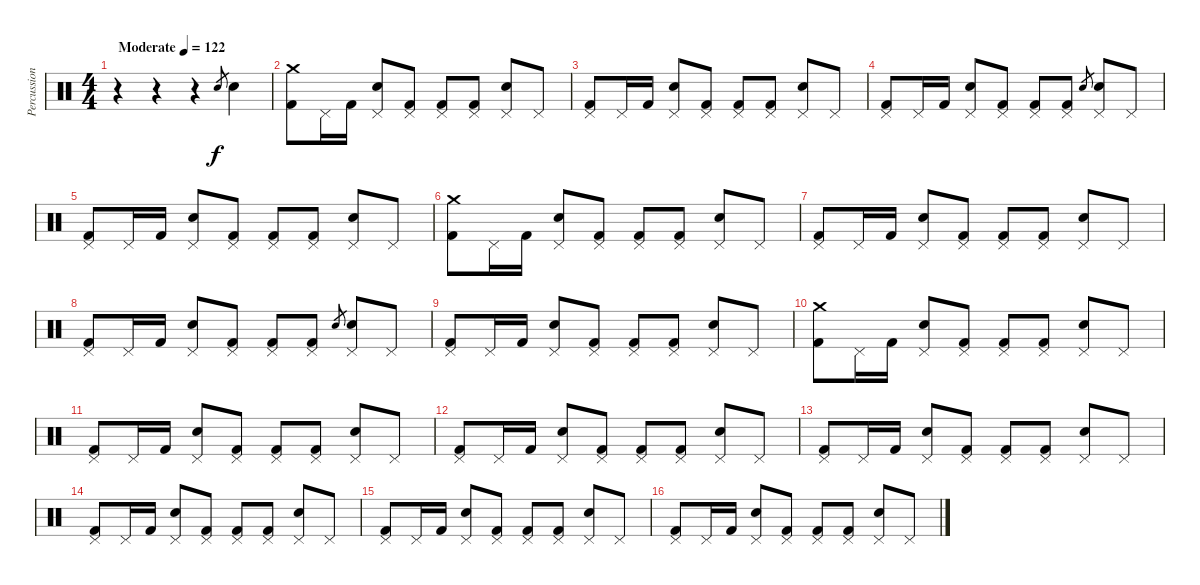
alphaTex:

\track ("Percussion" "Percussion") {instrument percussion}
\staff {score}
\articulation defaults
\ts (4 4)
\tempo (122 "Moderate")
\clef neutral
\ks c
r.4{dy f} r.4 r.4 "Electric Snare (hit)".8{gr} "Electric Snare (hit)".4 |
("Crash medium (hit)" "Kick (hit) 2").8 "Pedal Hi-Hat (hit)".16 "Kick (hit) 2".16 ("Pedal Hi-Hat (hit)" "Electric Snare (hit)").8 ("Pedal Hi-Hat (hit)" "Kick (hit) 2").8 ("Pedal Hi-Hat (hit)" "Kick (hit) 2").8 ("Pedal Hi-Hat (hit)" "Kick (hit) 2").8 ("Pedal Hi-Hat (hit)" "Electric Snare (hit)").8 "Pedal Hi-Hat (hit)".8 |
("Pedal Hi-Hat (hit)" "Kick (hit) 2").8 "Pedal Hi-Hat (hit)".16 "Kick (hit) 2".16 ("Pedal Hi-Hat (hit)" "Electric Snare (hit)").8 ("Pedal Hi-Hat (hit)" "Kick (hit) 2").8 ("Pedal Hi-Hat (hit)" "Kick (hit) 2").8 ("Pedal Hi-Hat (hit)" "Kick (hit) 2").8 ("Pedal Hi-Hat (hit)" "Electric Snare (hit)").8 "Pedal Hi-Hat (hit)".8 |
("Pedal Hi-Hat (hit)" "Kick (hit) 2").8 "Pedal Hi-Hat (hit)".16 "Kick (hit) 2".16 ("Pedal Hi-Hat (hit)" "Electric Snare (hit)").8 ("Pedal Hi-Hat (hit)" "Kick (hit) 2").8 ("Pedal Hi-Hat (hit)" "Kick (hit) 2").8 ("Pedal Hi-Hat (hit)" "Kick (hit) 2").8 "Electric Snare (hit)".8{gr} ("Pedal Hi-Hat (hit)" "Electric Snare (hit)").8 "Pedal Hi-Hat (hit)".8 |
("Pedal Hi-Hat (hit)" "Kick (hit) 2").8 "Pedal Hi-Hat (hit)".16 "Kick (hit) 2".16 ("Pedal Hi-Hat (hit)" "Electric Snare (hit)").8 ("Pedal Hi-Hat (hit)" "Kick (hit) 2").8 ("Pedal Hi-Hat (hit)" "Kick (hit) 2").8 ("Pedal Hi-Hat (hit)" "Kick (hit) 2").8 ("Pedal Hi-Hat (hit)" "Electric Snare (hit)").8 "Pedal Hi-Hat (hit)".8 |
("Crash medium (hit)" "Kick (hit) 2").8 "Pedal Hi-Hat (hit)".16 "Kick (hit) 2".16 ("Pedal Hi-Hat (hit)" "Electric Snare (hit)").8 ("Pedal Hi-Hat (hit)" "Kick (hit) 2").8 ("Pedal Hi-Hat (hit)" "Kick (hit) 2").8 ("Pedal Hi-Hat (hit)" "Kick (hit) 2").8 ("Pedal Hi-Hat (hit)" "Electric Snare (hit)").8 "Pedal Hi-Hat (hit)".8 |
("Pedal Hi-Hat (hit)" "Kick (hit) 2").8 "Pedal Hi-Hat (hit)".16 "Kick (hit) 2".16 ("Pedal Hi-Hat (hit)" "Electric Snare (hit)").8 ("Pedal Hi-Hat (hit)" "Kick (hit) 2").8 ("Pedal Hi-Hat (hit)" "Kick (hit) 2").8 ("Pedal Hi-Hat (hit)" "Kick (hit) 2").8 ("Pedal Hi-Hat (hit)" "Electric Snare (hit)").8 "Pedal Hi-Hat (hit)".8 |
("Pedal Hi-Hat (hit)" "Kick (hit) 2").8 "Pedal Hi-Hat (hit)".16 "Kick (hit) 2".16 ("Pedal Hi-Hat (hit)" "Electric Snare (hit)").8 ("Pedal Hi-Hat (hit)" "Kick (hit) 2").8 ("Pedal Hi-Hat (hit)" "Kick (hit) 2").8 ("Pedal Hi-Hat (hit)" "Kick (hit) 2").8 "Electric Snare (hit)".8{gr} ("Pedal Hi-Hat (hit)" "Electric Snare (hit)").8 "Pedal Hi-Hat (hit)".8 |
("Pedal Hi-Hat (hit)" "Kick (hit) 2").8 "Pedal Hi-Hat (hit)".16 "Kick (hit) 2".16 ("Pedal Hi-Hat (hit)" "Electric Snare (hit)").8 ("Pedal Hi-Hat (hit)" "Kick (hit) 2").8 ("Pedal Hi-Hat (hit)" "Kick (hit) 2").8 ("Pedal Hi-Hat (hit)" "Kick (hit) 2").8 ("Pedal Hi-Hat (hit)" "Electric Snare (hit)").8 "Pedal Hi-Hat (hit)".8 |
("Crash medium (hit)" "Kick (hit) 2").8 "Pedal Hi-Hat (hit)".16 "Kick (hit) 2".16 ("Pedal Hi-Hat (hit)" "Electric Snare (hit)").8 ("Pedal Hi-Hat (hit)" "Kick (hit) 2").8 ("Pedal Hi-Hat (hit)" "Kick (hit) 2").8 ("Pedal Hi-Hat (hit)" "Kick (hit) 2").8 ("Pedal Hi-Hat (hit)" "Electric Snare (hit)").8 "Pedal Hi-Hat (hit)".8 |
("Pedal Hi-Hat (hit)" "Kick (hit) 2").8 "Pedal Hi-Hat (hit)".16 "Kick (hit) 2".16 ("Pedal Hi-Hat (hit)" "Electric Snare (hit)").8 ("Pedal Hi-Hat (hit)" "Kick (hit) 2").8 ("Pedal Hi-Hat (hit)" "Kick (hit) 2").8 ("Pedal Hi-Hat (hit)" "Kick (hit) 2").8 ("Pedal Hi-Hat (hit)" "Electric Snare (hit)").8 "Pedal Hi-Hat (hit)".8 |
("Pedal Hi-Hat (hit)" "Kick (hit) 2").8 "Pedal Hi-Hat (hit)".16 "Kick (hit) 2".16 ("Pedal Hi-Hat (hit)" "Electric Snare (hit)").8 ("Pedal Hi-Hat (hit)" "Kick (hit) 2").8 ("Pedal Hi-Hat (hit)" "Kick (hit) 2").8 ("Pedal Hi-Hat (hit)" "Kick (hit) 2").8 ("Pedal Hi-Hat (hit)" "Electric Snare (hit)").8 "Pedal Hi-Hat (hit)".8 |
("Pedal Hi-Hat (hit)" "Kick (hit) 2").8 "Pedal Hi-Hat (hit)".16 "Kick (hit) 2".16 ("Pedal Hi-Hat (hit)" "Electric Snare (hit)").8 ("Pedal Hi-Hat (hit)" "Kick (hit) 2").8 ("Pedal Hi-Hat (hit)" "Kick (hit) 2").8 ("Pedal Hi-Hat (hit)" "Kick (hit) 2").8 ("Pedal Hi-Hat (hit)" "Electric Snare (hit)").8 "Pedal Hi-Hat (hit)".8 |
("Pedal Hi-Hat (hit)" "Kick (hit) 2").8 "Pedal Hi-Hat (hit)".16 "Kick (hit) 2".16 ("Pedal Hi-Hat (hit)" "Electric Snare (hit)").8 ("Pedal Hi-Hat (hit)" "Kick (hit) 2").8 ("Pedal Hi-Hat (hit)" "Kick (hit) 2").8 ("Pedal Hi-Hat (hit)" "Kick (hit) 2").8 ("Pedal Hi-Hat (hit)" "Electric Snare (hit)").8 "Pedal Hi-Hat (hit)".8 |
("Pedal Hi-Hat (hit)" "Kick (hit) 2").8 "Pedal Hi-Hat (hit)".16 "Kick (hit) 2".16 ("Pedal Hi-Hat (hit)" "Electric Snare (hit)").8 ("Pedal Hi-Hat (hit)" "Kick (hit) 2").8 ("Pedal Hi-Hat (hit)" "Kick (hit) 2").8 ("Pedal Hi-Hat (hit)" "Kick (hit) 2").8 ("Pedal Hi-Hat (hit)" "Electric Snare (hit)").8 "Pedal Hi-Hat (hit)".8 |
("Pedal Hi-Hat (hit)" "Kick (hit) 2").8 "Pedal Hi-Hat (hit)".16 "Kick (hit) 2".16 ("Pedal Hi-Hat (hit)" "Electric Snare (hit)").8 ("Pedal Hi-Hat (hit)" "Kick (hit) 2").8 ("Pedal Hi-Hat (hit)" "Kick (hit) 2").8 ("Pedal Hi-Hat (hit)" "Kick (hit) 2").8 ("Pedal Hi-Hat (hit)" "Electric Snare (hit)").8 "Pedal Hi-Hat (hit)".8
